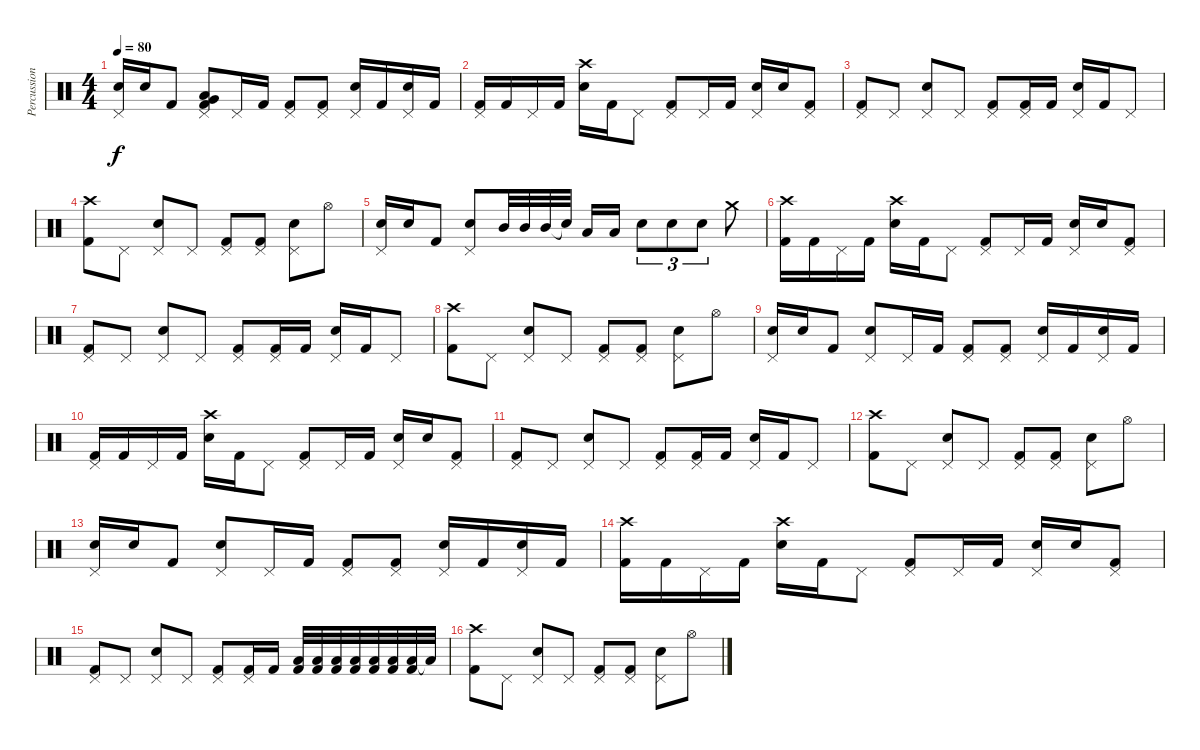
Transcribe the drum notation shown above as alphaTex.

\track ("Percussion" "Percussion") {instrument percussion}
\staff {score}
\articulation defaults
\ts (4 4)
\tempo 80
\clef neutral
\ks c
("Pedal Hi-Hat (hit)" "Electric Snare (hit)").16{dy f} "Electric Snare (hit)".16 "Kick (hit) 2".8 ("Pedal Hi-Hat (hit)" "Low Floor Tom (hit)" "Very Low Tom (hit)" "Kick (hit) 2").8 "Pedal Hi-Hat (hit)".16 "Kick (hit) 2".16 ("Pedal Hi-Hat (hit)" "Kick (hit) 2").8 ("Pedal Hi-Hat (hit)" "Kick (hit) 2").8 ("Pedal Hi-Hat (hit)" "Electric Snare (hit)").16 "Kick (hit) 2".16 ("Pedal Hi-Hat (hit)" "Electric Snare (hit)").16 "Kick (hit) 2".16 |
("Pedal Hi-Hat (hit)" "Kick (hit) 2").16 "Kick (hit) 2".16 "Pedal Hi-Hat (hit)".16 "Kick (hit) 2".16 ("Crash high (hit)" "Electric Snare (hit)").16 "Kick (hit) 2".16 "Pedal Hi-Hat (hit)".8 ("Pedal Hi-Hat (hit)" "Kick (hit) 2").8 "Pedal Hi-Hat (hit)".16 "Kick (hit) 2".16 ("Pedal Hi-Hat (hit)" "Electric Snare (hit)").16 "Electric Snare (hit)".16 ("Pedal Hi-Hat (hit)" "Kick (hit) 2").8 |
("Pedal Hi-Hat (hit)" "Kick (hit) 2").8 "Pedal Hi-Hat (hit)".8 ("Pedal Hi-Hat (hit)" "Electric Snare (hit)").8 "Pedal Hi-Hat (hit)".8 ("Pedal Hi-Hat (hit)" "Kick (hit) 2").8 ("Pedal Hi-Hat (hit)" "Kick (hit) 2").16 "Kick (hit) 2".16 ("Pedal Hi-Hat (hit)" "Electric Snare (hit)").16 "Kick (hit) 2".16 "Pedal Hi-Hat (hit)".8 |
("Crash high (hit)" "Kick (hit) 2").8 "Pedal Hi-Hat (hit)".8 ("Pedal Hi-Hat (hit)" "Electric Snare (hit)").8 "Pedal Hi-Hat (hit)".8 ("Pedal Hi-Hat (hit)" "Kick (hit) 2").8 ("Pedal Hi-Hat (hit)" "Kick (hit) 2").8 ("Pedal Hi-Hat (hit)" "Electric Snare (hit)").8 "Hi-Hat (open)".8 |
("Pedal Hi-Hat (hit)" "Electric Snare (hit)").16 "Electric Snare (hit)".16 "Kick (hit) 2".8 ("Pedal Hi-Hat (hit)" "Electric Snare (hit)").8 "Mid Tom (hit)".32 "Mid Tom (hit)".32 "Mid Tom (hit)".32 "Snare (hit)"{t}.32 "Low Tom (hit)".16 "Low Tom (hit)".16 "Electric Snare (hit)".8{tu (3 2)} "Electric Snare (hit)".8{tu (3 2)} "Electric Snare (hit)".8{tu (3 2)} "Crash medium (hit)".8 |
("Crash high (hit)" "Kick (hit) 2").16 "Kick (hit) 2".16 "Pedal Hi-Hat (hit)".16 "Kick (hit) 2".16 ("Crash high (hit)" "Electric Snare (hit)").16 "Kick (hit) 2".16 "Pedal Hi-Hat (hit)".8 ("Pedal Hi-Hat (hit)" "Kick (hit) 2").8 "Pedal Hi-Hat (hit)".16 "Kick (hit) 2".16 ("Pedal Hi-Hat (hit)" "Electric Snare (hit)").16 "Electric Snare (hit)".16 ("Pedal Hi-Hat (hit)" "Kick (hit) 2").8 |
("Pedal Hi-Hat (hit)" "Kick (hit) 2").8 "Pedal Hi-Hat (hit)".8 ("Pedal Hi-Hat (hit)" "Electric Snare (hit)").8 "Pedal Hi-Hat (hit)".8 ("Pedal Hi-Hat (hit)" "Kick (hit) 2").8 ("Pedal Hi-Hat (hit)" "Kick (hit) 2").16 "Kick (hit) 2".16 ("Pedal Hi-Hat (hit)" "Electric Snare (hit)").16 "Kick (hit) 2".16 "Pedal Hi-Hat (hit)".8 |
("Crash high (hit)" "Kick (hit) 2").8 "Pedal Hi-Hat (hit)".8 ("Pedal Hi-Hat (hit)" "Electric Snare (hit)").8 "Pedal Hi-Hat (hit)".8 ("Pedal Hi-Hat (hit)" "Kick (hit) 2").8 ("Pedal Hi-Hat (hit)" "Kick (hit) 2").8 ("Pedal Hi-Hat (hit)" "Electric Snare (hit)").8 "Hi-Hat (open)".8 |
("Pedal Hi-Hat (hit)" "Electric Snare (hit)").16 "Electric Snare (hit)".16 "Kick (hit) 2".8 ("Pedal Hi-Hat (hit)" "Electric Snare (hit)").8 "Pedal Hi-Hat (hit)".16 "Kick (hit) 2".16 ("Pedal Hi-Hat (hit)" "Kick (hit) 2").8 ("Pedal Hi-Hat (hit)" "Kick (hit) 2").8 ("Pedal Hi-Hat (hit)" "Electric Snare (hit)").16 "Kick (hit) 2".16 ("Pedal Hi-Hat (hit)" "Electric Snare (hit)").16 "Kick (hit) 2".16 |
("Pedal Hi-Hat (hit)" "Kick (hit) 2").16 "Kick (hit) 2".16 "Pedal Hi-Hat (hit)".16 "Kick (hit) 2".16 ("Crash high (hit)" "Electric Snare (hit)").16 "Kick (hit) 2".16 "Pedal Hi-Hat (hit)".8 ("Pedal Hi-Hat (hit)" "Kick (hit) 2").8 "Pedal Hi-Hat (hit)".16 "Kick (hit) 2".16 ("Pedal Hi-Hat (hit)" "Electric Snare (hit)").16 "Electric Snare (hit)".16 ("Pedal Hi-Hat (hit)" "Kick (hit) 2").8 |
("Pedal Hi-Hat (hit)" "Kick (hit) 2").8 "Pedal Hi-Hat (hit)".8 ("Pedal Hi-Hat (hit)" "Electric Snare (hit)").8 "Pedal Hi-Hat (hit)".8 ("Pedal Hi-Hat (hit)" "Kick (hit) 2").8 ("Pedal Hi-Hat (hit)" "Kick (hit) 2").16 "Kick (hit) 2".16 ("Pedal Hi-Hat (hit)" "Electric Snare (hit)").16 "Kick (hit) 2".16 "Pedal Hi-Hat (hit)".8 |
("Crash high (hit)" "Kick (hit) 2").8 "Pedal Hi-Hat (hit)".8 ("Pedal Hi-Hat (hit)" "Electric Snare (hit)").8 "Pedal Hi-Hat (hit)".8 ("Pedal Hi-Hat (hit)" "Kick (hit) 2").8 ("Pedal Hi-Hat (hit)" "Kick (hit) 2").8 ("Pedal Hi-Hat (hit)" "Electric Snare (hit)").8 "Hi-Hat (open)".8 |
("Pedal Hi-Hat (hit)" "Electric Snare (hit)").16 "Electric Snare (hit)".16 "Kick (hit) 2".8 ("Pedal Hi-Hat (hit)" "Electric Snare (hit)").8 "Pedal Hi-Hat (hit)".16 "Kick (hit) 2".16 ("Pedal Hi-Hat (hit)" "Kick (hit) 2").8 ("Pedal Hi-Hat (hit)" "Kick (hit) 2").8 ("Pedal Hi-Hat (hit)" "Electric Snare (hit)").16 "Kick (hit) 2".16 ("Pedal Hi-Hat (hit)" "Electric Snare (hit)").16 "Kick (hit) 2".16 |
("Crash high (hit)" "Kick (hit) 2").16 "Kick (hit) 2".16 "Pedal Hi-Hat (hit)".16 "Kick (hit) 2".16 ("Crash high (hit)" "Electric Snare (hit)").16 "Kick (hit) 2".16 "Pedal Hi-Hat (hit)".8 ("Pedal Hi-Hat (hit)" "Kick (hit) 2").8 "Pedal Hi-Hat (hit)".16 "Kick (hit) 2".16 ("Pedal Hi-Hat (hit)" "Electric Snare (hit)").16 "Electric Snare (hit)".16 ("Pedal Hi-Hat (hit)" "Kick (hit) 2").8 |
("Pedal Hi-Hat (hit)" "Kick (hit) 2").8 "Pedal Hi-Hat (hit)".8 ("Pedal Hi-Hat (hit)" "Electric Snare (hit)").8 "Pedal Hi-Hat (hit)".8 ("Pedal Hi-Hat (hit)" "Kick (hit) 2").8 ("Pedal Hi-Hat (hit)" "Kick (hit) 2").16 "Kick (hit) 2".16 ("Low Tom (hit)" "Kick (hit) 2").32 ("Low Tom (hit)" "Kick (hit) 2").32 ("Low Tom (hit)" "Kick (hit) 2").32 ("Low Tom (hit)" "Kick (hit) 2").32 ("Low Floor Tom (hit)" "Kick (hit) 2").32 ("Low Floor Tom (hit)" "Kick (hit) 2").32 ("Low Floor Tom (hit)" "Kick (hit) 2").32 "Low Tom (hit)"{t}.32 |
("Crash high (hit)" "Kick (hit) 2").8 "Pedal Hi-Hat (hit)".8 ("Pedal Hi-Hat (hit)" "Electric Snare (hit)").8 "Pedal Hi-Hat (hit)".8 ("Pedal Hi-Hat (hit)" "Kick (hit) 2").8 ("Pedal Hi-Hat (hit)" "Kick (hit) 2").8 ("Pedal Hi-Hat (hit)" "Electric Snare (hit)").8 "Hi-Hat (open)".8
